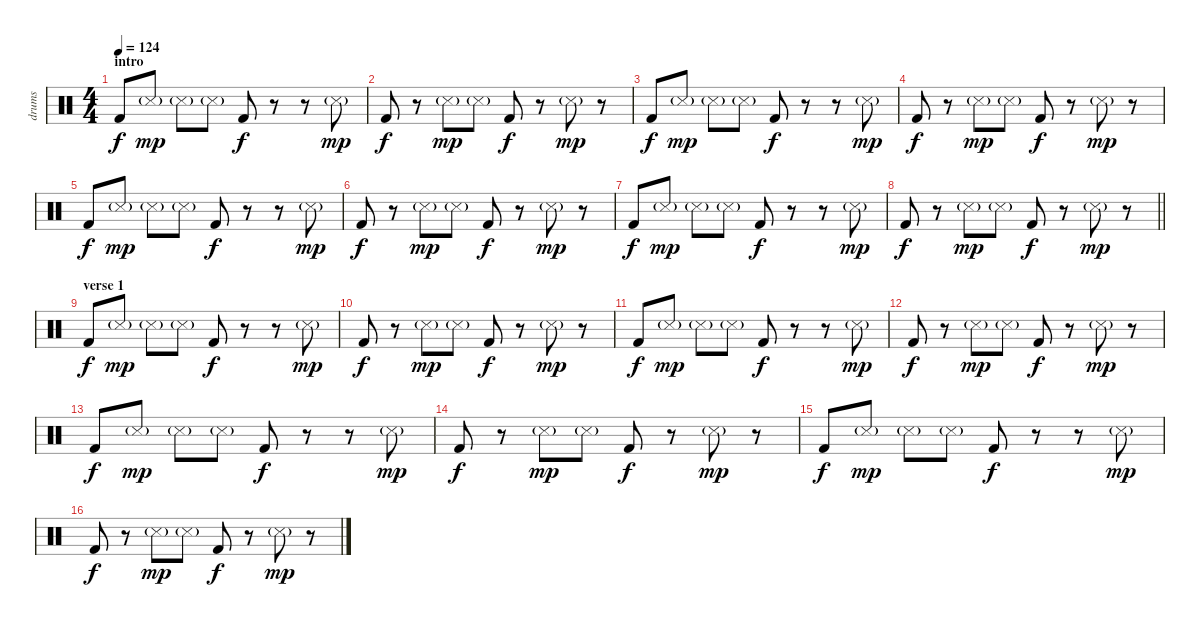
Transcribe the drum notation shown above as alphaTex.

\track ("drums" "drums") {instrument percussion}
\staff {score}
\articulation defaults
\ts (4 4)
\section ("" "intro")
\tempo 124
\clef neutral
\ks c "Kick (hit) 2".8{dy f} "Snare (side stick) 3"{g}.8{dy mp} "Snare (side stick) 3"{g}.8 "Snare (side stick) 3"{g}.8 "Kick (hit) 2".8{dy f}
r.8 r.8 "Snare (side stick) 3"{g}.8{dy mp} |
"Kick (hit) 2".8{dy f} r.8 "Snare (side stick) 3"{g}.8{dy mp} "Snare (side stick) 3"{g}.8 "Kick (hit) 2".8{dy f} r.8 "Snare (side stick) 3"{g}.8{dy mp} r.8 |
"Kick (hit) 2".8{dy f} "Snare (side stick) 3"{g}.8{dy mp} "Snare (side stick) 3"{g}.8 "Snare (side stick) 3"{g}.8 "Kick (hit) 2".8{dy f} r.8 r.8 "Snare (side stick) 3"{g}.8{dy mp} |
"Kick (hit) 2".8{dy f} r.8 "Snare (side stick) 3"{g}.8{dy mp} "Snare (side stick) 3"{g}.8 "Kick (hit) 2".8{dy f} r.8 "Snare (side stick) 3"{g}.8{dy mp} r.8 |
"Kick (hit) 2".8{dy f} "Snare (side stick) 3"{g}.8{dy mp} "Snare (side stick) 3"{g}.8 "Snare (side stick) 3"{g}.8 "Kick (hit) 2".8{dy f} r.8 r.8 "Snare (side stick) 3"{g}.8{dy mp} |
"Kick (hit) 2".8{dy f} r.8 "Snare (side stick) 3"{g}.8{dy mp} "Snare (side stick) 3"{g}.8 "Kick (hit) 2".8{dy f} r.8 "Snare (side stick) 3"{g}.8{dy mp} r.8 |
"Kick (hit) 2".8{dy f} "Snare (side stick) 3"{g}.8{dy mp} "Snare (side stick) 3"{g}.8 "Snare (side stick) 3"{g}.8 "Kick (hit) 2".8{dy f} r.8 r.8 "Snare (side stick) 3"{g}.8{dy mp} |
\barLineRight lightlight "Kick (hit) 2".8{dy f}
r.8 "Snare (side stick) 3"{g}.8{dy mp} "Snare (side stick) 3"{g}.8 "Kick (hit) 2".8{dy f} r.8 "Snare (side stick) 3"{g}.8{dy mp} r.8 |
\section ("" "verse 1")
"Kick (hit) 2".8{dy f} "Snare (side stick) 3"{g}.8{dy mp} "Snare (side stick) 3"{g}.8 "Snare (side stick) 3"{g}.8 "Kick (hit) 2".8{dy f} r.8 r.8 "Snare (side stick) 3"{g}.8{dy mp} |
"Kick (hit) 2".8{dy f} r.8 "Snare (side stick) 3"{g}.8{dy mp} "Snare (side stick) 3"{g}.8 "Kick (hit) 2".8{dy f} r.8 "Snare (side stick) 3"{g}.8{dy mp} r.8 |
"Kick (hit) 2".8{dy f} "Snare (side stick) 3"{g}.8{dy mp} "Snare (side stick) 3"{g}.8 "Snare (side stick) 3"{g}.8 "Kick (hit) 2".8{dy f} r.8 r.8 "Snare (side stick) 3"{g}.8{dy mp} |
"Kick (hit) 2".8{dy f} r.8 "Snare (side stick) 3"{g}.8{dy mp} "Snare (side stick) 3"{g}.8 "Kick (hit) 2".8{dy f} r.8 "Snare (side stick) 3"{g}.8{dy mp} r.8 |
"Kick (hit) 2".8{dy f} "Snare (side stick) 3"{g}.8{dy mp} "Snare (side stick) 3"{g}.8 "Snare (side stick) 3"{g}.8 "Kick (hit) 2".8{dy f} r.8 r.8 "Snare (side stick) 3"{g}.8{dy mp} |
"Kick (hit) 2".8{dy f} r.8 "Snare (side stick) 3"{g}.8{dy mp} "Snare (side stick) 3"{g}.8 "Kick (hit) 2".8{dy f} r.8 "Snare (side stick) 3"{g}.8{dy mp} r.8 |
"Kick (hit) 2".8{dy f} "Snare (side stick) 3"{g}.8{dy mp} "Snare (side stick) 3"{g}.8 "Snare (side stick) 3"{g}.8 "Kick (hit) 2".8{dy f} r.8 r.8 "Snare (side stick) 3"{g}.8{dy mp} |
"Kick (hit) 2".8{dy f} r.8 "Snare (side stick) 3"{g}.8{dy mp} "Snare (side stick) 3"{g}.8 "Kick (hit) 2".8{dy f} r.8 "Snare (side stick) 3"{g}.8{dy mp} r.8
